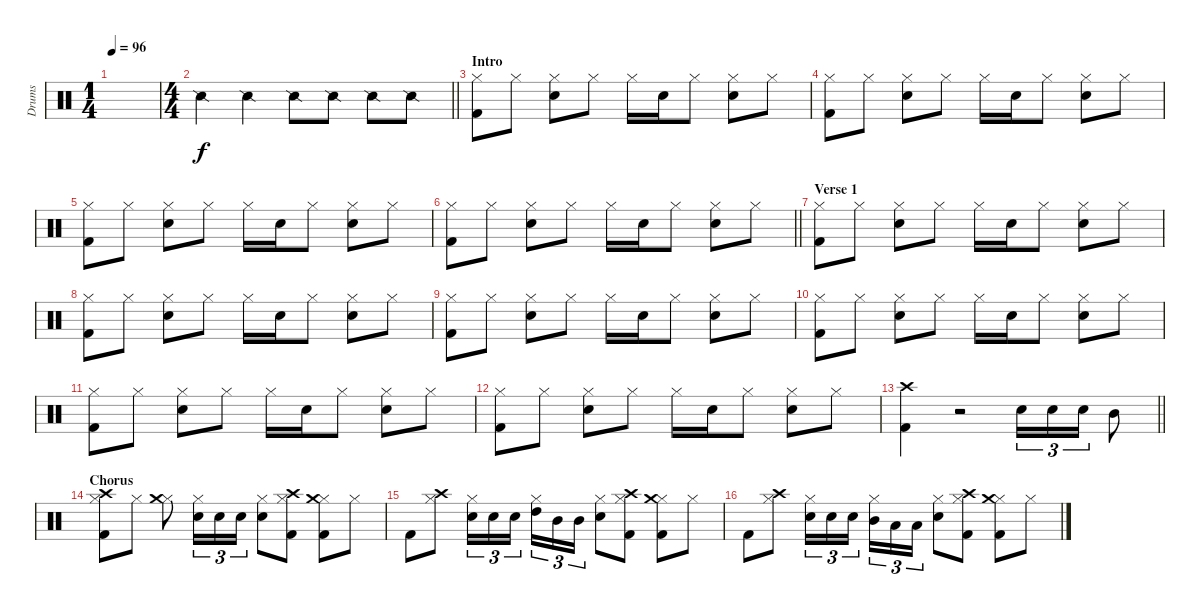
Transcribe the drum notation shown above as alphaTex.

\track ("Drums" "Drums") {instrument percussion}
\staff {score}
\articulation defaults
\ts (1 4)
\tempo 96
\clef neutral
\ks c
|
\ts (4 4)
\barLineRight lightlight "Snare (side stick) 2".4 "Snare (side stick) 2".4 "Snare (side stick) 2".8 "Snare (side stick) 2".8 "Snare (side stick) 2".8 "Snare (side stick) 2".8
|
\section ("" "Intro")
("Kick (hit) 2" "Hi-Hat (closed)").8 "Hi-Hat (closed)".8 ("Snare (hit) 2" "Hi-Hat (closed)").8 "Hi-Hat (closed)".8 "Hi-Hat (closed)".16 "Snare (hit) 2".16 "Hi-Hat (closed)".8 ("Snare (hit) 2" "Hi-Hat (closed)").8 "Hi-Hat (closed)".8 |
("Kick (hit) 2" "Hi-Hat (closed)").8 "Hi-Hat (closed)".8 ("Snare (hit) 2" "Hi-Hat (closed)").8 "Hi-Hat (closed)".8 "Hi-Hat (closed)".16 "Snare (hit) 2".16 "Hi-Hat (closed)".8 ("Snare (hit) 2" "Hi-Hat (closed)").8 "Hi-Hat (closed)".8 |
("Kick (hit) 2" "Hi-Hat (closed)").8 "Hi-Hat (closed)".8 ("Snare (hit) 2" "Hi-Hat (closed)").8 "Hi-Hat (closed)".8 "Hi-Hat (closed)".16 "Snare (hit) 2".16 "Hi-Hat (closed)".8 ("Snare (hit) 2" "Hi-Hat (closed)").8 "Hi-Hat (closed)".8 |
\barLineRight lightlight
("Kick (hit) 2" "Hi-Hat (closed)").8 "Hi-Hat (closed)".8 ("Snare (hit) 2" "Hi-Hat (closed)").8 "Hi-Hat (closed)".8 "Hi-Hat (closed)".16 "Snare (hit) 2".16 "Hi-Hat (closed)".8 ("Snare (hit) 2" "Hi-Hat (closed)").8 "Hi-Hat (closed)".8 |
\section ("" "Verse 1")
("Kick (hit) 2" "Hi-Hat (closed)").8 "Hi-Hat (closed)".8 ("Snare (hit) 2" "Hi-Hat (closed)").8 "Hi-Hat (closed)".8 "Hi-Hat (closed)".16 "Snare (hit) 2".16 "Hi-Hat (closed)".8 ("Snare (hit) 2" "Hi-Hat (closed)").8 "Hi-Hat (closed)".8 |
("Kick (hit) 2" "Hi-Hat (closed)").8 "Hi-Hat (closed)".8 ("Snare (hit) 2" "Hi-Hat (closed)").8 "Hi-Hat (closed)".8 "Hi-Hat (closed)".16 "Snare (hit) 2".16 "Hi-Hat (closed)".8 ("Snare (hit) 2" "Hi-Hat (closed)").8 "Hi-Hat (closed)".8 |
("Kick (hit) 2" "Hi-Hat (closed)").8 "Hi-Hat (closed)".8 ("Snare (hit) 2" "Hi-Hat (closed)").8 "Hi-Hat (closed)".8 "Hi-Hat (closed)".16 "Snare (hit) 2".16 "Hi-Hat (closed)".8 ("Snare (hit) 2" "Hi-Hat (closed)").8 "Hi-Hat (closed)".8 |
("Kick (hit) 2" "Hi-Hat (closed)").8 "Hi-Hat (closed)".8 ("Snare (hit) 2" "Hi-Hat (closed)").8 "Hi-Hat (closed)".8 "Hi-Hat (closed)".16 "Snare (hit) 2".16 "Hi-Hat (closed)".8 ("Snare (hit) 2" "Hi-Hat (closed)").8 "Hi-Hat (closed)".8 |
("Kick (hit) 2" "Hi-Hat (closed)").8 "Hi-Hat (closed)".8 ("Snare (hit) 2" "Hi-Hat (closed)").8 "Hi-Hat (closed)".8 "Hi-Hat (closed)".16 "Snare (hit) 2".16 "Hi-Hat (closed)".8 ("Snare (hit) 2" "Hi-Hat (closed)").8 "Hi-Hat (closed)".8 |
("Kick (hit) 2" "Hi-Hat (closed)").8 "Hi-Hat (closed)".8 ("Snare (hit) 2" "Hi-Hat (closed)").8 "Hi-Hat (closed)".8 "Hi-Hat (closed)".16 "Snare (hit) 2".16 "Hi-Hat (closed)".8 ("Snare (hit) 2" "Hi-Hat (closed)").8 "Hi-Hat (closed)".8 |
\barLineRight lightlight
("Kick (hit) 2" "Crash high (hit)").4 r.2 "Snare (hit) 2".16{tu (3 2)} "Snare (hit) 2".16{tu (3 2)} "Snare (hit) 2".16{tu (3 2)} "Mid Tom (hit)".8 |
\section ("" "Chorus")
("Kick (hit) 2" "Hi-Hat (closed)" "Crash high (hit)").8 "Hi-Hat (closed)".8 ("Hi-Hat (closed)" "Crash medium (hit)").8 ("Snare (hit) 2" "Hi-Hat (closed)").16{tu (3 2)} "Snare (hit) 2".16{tu (3 2)} "Snare (hit) 2".16{tu (3 2)} ("Snare (hit) 2" "Hi-Hat (closed)").8 ("Kick (hit) 2" "Hi-Hat (closed)" "Crash high (hit)").8 ("Kick (hit) 2" "Hi-Hat (closed)" "Crash medium (hit)").8 "Hi-Hat (closed)".8 |
"Kick (hit) 2".8 ("Hi-Hat (closed)" "Crash high (hit)").8 ("Snare (hit) 2" "Hi-Hat (closed)").16{tu (3 2)} "Snare (hit) 2".16{tu (3 2)} "Snare (hit) 2".16{tu (3 2) beam splitsecondary} ("Hi-Hat (closed)" "High Tom (hit)").16{tu (3 2)} "Mid Tom (hit)".16{tu (3 2)} "Mid Tom (hit)".16{tu (3 2)} ("Snare (hit) 2" "Hi-Hat (closed)").8 ("Kick (hit) 2" "Hi-Hat (closed)" "Crash high (hit)").8 ("Kick (hit) 2" "Hi-Hat (closed)" "Crash medium (hit)").8 "Hi-Hat (closed)".8 |
"Kick (hit) 2".8 ("Hi-Hat (closed)" "Crash high (hit)").8 ("Snare (hit) 2" "Hi-Hat (closed)").16{tu (3 2)} "Snare (hit) 2".16{tu (3 2)} "Snare (hit) 2".16{tu (3 2) beam splitsecondary} ("Hi-Hat (closed)" "Mid Tom (hit)").16{tu (3 2)} "Low Tom (hit)".16{tu (3 2)} "Low Tom (hit)".16{tu (3 2)} ("Snare (hit) 2" "Hi-Hat (closed)").8 ("Kick (hit) 2" "Hi-Hat (closed)" "Crash high (hit)").8 ("Kick (hit) 2" "Hi-Hat (closed)" "Crash medium (hit)").8 "Hi-Hat (closed)".8
